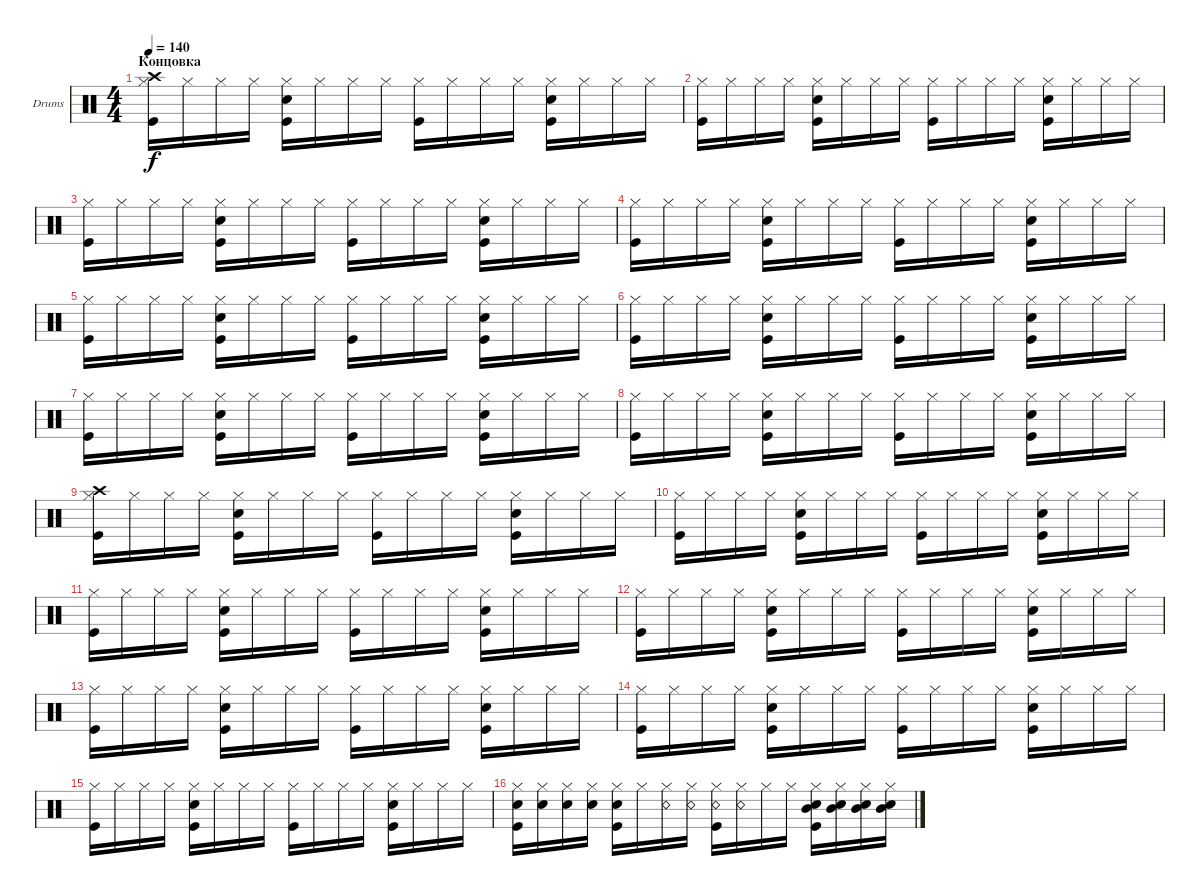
\defaultSystemsLayout 4
\bracketExtendMode groupsimilarinstruments
\firstSystemTrackNameOrientation horizontal
\otherSystemsTrackNameOrientation horizontal
\track ("Drumkit" "Drums") {instrument percussion}
\staff {score}
\articulation defaults
\ts (4 4)
\section ("" "Концовка")
\tempo 140
\clef neutral
\ks c
("Hi-Hat (closed)" "Kick (hit)" "Crash high (hit)").16{dy f} "Hi-Hat (closed)".16 "Hi-Hat (closed)".16 "Hi-Hat (closed)".16 ("Hi-Hat (closed)" "Kick (hit)" "Snare (hit) 2").16 "Hi-Hat (closed)".16 "Hi-Hat (closed)".16 "Hi-Hat (closed)".16 ("Hi-Hat (closed)" "Kick (hit)").16 "Hi-Hat (closed)".16 "Hi-Hat (closed)".16 "Hi-Hat (closed)".16 ("Hi-Hat (closed)" "Kick (hit)" "Snare (hit) 2").16 "Hi-Hat (closed)".16 "Hi-Hat (closed)".16 "Hi-Hat (closed)".16 |
("Hi-Hat (closed)" "Kick (hit)").16 "Hi-Hat (closed)".16 "Hi-Hat (closed)".16 "Hi-Hat (closed)".16 ("Hi-Hat (closed)" "Kick (hit)" "Snare (hit) 2").16 "Hi-Hat (closed)".16 "Hi-Hat (closed)".16 "Hi-Hat (closed)".16 ("Hi-Hat (closed)" "Kick (hit)").16 "Hi-Hat (closed)".16 "Hi-Hat (closed)".16 "Hi-Hat (closed)".16 ("Hi-Hat (closed)" "Kick (hit)" "Snare (hit) 2").16 "Hi-Hat (closed)".16 "Hi-Hat (closed)".16 "Hi-Hat (closed)".16 |
("Hi-Hat (closed)" "Kick (hit)").16 "Hi-Hat (closed)".16 "Hi-Hat (closed)".16 "Hi-Hat (closed)".16 ("Hi-Hat (closed)" "Kick (hit)" "Snare (hit) 2").16 "Hi-Hat (closed)".16 "Hi-Hat (closed)".16 "Hi-Hat (closed)".16 ("Hi-Hat (closed)" "Kick (hit)").16 "Hi-Hat (closed)".16 "Hi-Hat (closed)".16 "Hi-Hat (closed)".16 ("Hi-Hat (closed)" "Kick (hit)" "Snare (hit) 2").16 "Hi-Hat (closed)".16 "Hi-Hat (closed)".16 "Hi-Hat (closed)".16 |
("Hi-Hat (closed)" "Kick (hit)").16 "Hi-Hat (closed)".16 "Hi-Hat (closed)".16 "Hi-Hat (closed)".16 ("Hi-Hat (closed)" "Kick (hit)" "Snare (hit) 2").16 "Hi-Hat (closed)".16 "Hi-Hat (closed)".16 "Hi-Hat (closed)".16 ("Hi-Hat (closed)" "Kick (hit)").16 "Hi-Hat (closed)".16 "Hi-Hat (closed)".16 "Hi-Hat (closed)".16 ("Hi-Hat (closed)" "Kick (hit)" "Snare (hit) 2").16 "Hi-Hat (closed)".16 "Hi-Hat (closed)".16 "Hi-Hat (closed)".16 |
("Hi-Hat (closed)" "Kick (hit)").16 "Hi-Hat (closed)".16 "Hi-Hat (closed)".16 "Hi-Hat (closed)".16 ("Hi-Hat (closed)" "Kick (hit)" "Snare (hit) 2").16 "Hi-Hat (closed)".16 "Hi-Hat (closed)".16 "Hi-Hat (closed)".16 ("Hi-Hat (closed)" "Kick (hit)").16 "Hi-Hat (closed)".16 "Hi-Hat (closed)".16 "Hi-Hat (closed)".16 ("Hi-Hat (closed)" "Kick (hit)" "Snare (hit) 2").16 "Hi-Hat (closed)".16 "Hi-Hat (closed)".16 "Hi-Hat (closed)".16 |
("Hi-Hat (closed)" "Kick (hit)").16 "Hi-Hat (closed)".16 "Hi-Hat (closed)".16 "Hi-Hat (closed)".16 ("Hi-Hat (closed)" "Kick (hit)" "Snare (hit) 2").16 "Hi-Hat (closed)".16 "Hi-Hat (closed)".16 "Hi-Hat (closed)".16 ("Hi-Hat (closed)" "Kick (hit)").16 "Hi-Hat (closed)".16 "Hi-Hat (closed)".16 "Hi-Hat (closed)".16 ("Hi-Hat (closed)" "Kick (hit)" "Snare (hit) 2").16 "Hi-Hat (closed)".16 "Hi-Hat (closed)".16 "Hi-Hat (closed)".16 |
("Hi-Hat (closed)" "Kick (hit)").16 "Hi-Hat (closed)".16 "Hi-Hat (closed)".16 "Hi-Hat (closed)".16 ("Hi-Hat (closed)" "Kick (hit)" "Snare (hit) 2").16 "Hi-Hat (closed)".16 "Hi-Hat (closed)".16 "Hi-Hat (closed)".16 ("Hi-Hat (closed)" "Kick (hit)").16 "Hi-Hat (closed)".16 "Hi-Hat (closed)".16 "Hi-Hat (closed)".16 ("Hi-Hat (closed)" "Kick (hit)" "Snare (hit) 2").16 "Hi-Hat (closed)".16 "Hi-Hat (closed)".16 "Hi-Hat (closed)".16 |
("Hi-Hat (closed)" "Kick (hit)").16 "Hi-Hat (closed)".16 "Hi-Hat (closed)".16 "Hi-Hat (closed)".16 ("Hi-Hat (closed)" "Kick (hit)" "Snare (hit) 2").16 "Hi-Hat (closed)".16 "Hi-Hat (closed)".16 "Hi-Hat (closed)".16 ("Hi-Hat (closed)" "Kick (hit)").16 "Hi-Hat (closed)".16 "Hi-Hat (closed)".16 "Hi-Hat (closed)".16 ("Hi-Hat (closed)" "Kick (hit)" "Snare (hit) 2").16 "Hi-Hat (closed)".16 "Hi-Hat (closed)".16 "Hi-Hat (closed)".16 |
("Hi-Hat (closed)" "Kick (hit)" "Crash high (hit)").16 "Hi-Hat (closed)".16 "Hi-Hat (closed)".16 "Hi-Hat (closed)".16 ("Hi-Hat (closed)" "Kick (hit)" "Snare (hit) 2").16 "Hi-Hat (closed)".16 "Hi-Hat (closed)".16 "Hi-Hat (closed)".16 ("Hi-Hat (closed)" "Kick (hit)").16 "Hi-Hat (closed)".16 "Hi-Hat (closed)".16 "Hi-Hat (closed)".16 ("Hi-Hat (closed)" "Kick (hit)" "Snare (hit) 2").16 "Hi-Hat (closed)".16 "Hi-Hat (closed)".16 "Hi-Hat (closed)".16 |
("Hi-Hat (closed)" "Kick (hit)").16 "Hi-Hat (closed)".16 "Hi-Hat (closed)".16 "Hi-Hat (closed)".16 ("Hi-Hat (closed)" "Kick (hit)" "Snare (hit) 2").16 "Hi-Hat (closed)".16 "Hi-Hat (closed)".16 "Hi-Hat (closed)".16 ("Hi-Hat (closed)" "Kick (hit)").16 "Hi-Hat (closed)".16 "Hi-Hat (closed)".16 "Hi-Hat (closed)".16 ("Hi-Hat (closed)" "Kick (hit)" "Snare (hit) 2").16 "Hi-Hat (closed)".16 "Hi-Hat (closed)".16 "Hi-Hat (closed)".16 |
("Hi-Hat (closed)" "Kick (hit)").16 "Hi-Hat (closed)".16 "Hi-Hat (closed)".16 "Hi-Hat (closed)".16 ("Hi-Hat (closed)" "Kick (hit)" "Snare (hit) 2").16 "Hi-Hat (closed)".16 "Hi-Hat (closed)".16 "Hi-Hat (closed)".16 ("Hi-Hat (closed)" "Kick (hit)").16 "Hi-Hat (closed)".16 "Hi-Hat (closed)".16 "Hi-Hat (closed)".16 ("Hi-Hat (closed)" "Kick (hit)" "Snare (hit) 2").16 "Hi-Hat (closed)".16 "Hi-Hat (closed)".16 "Hi-Hat (closed)".16 |
("Hi-Hat (closed)" "Kick (hit)").16 "Hi-Hat (closed)".16 "Hi-Hat (closed)".16 "Hi-Hat (closed)".16 ("Hi-Hat (closed)" "Kick (hit)" "Snare (hit) 2").16 "Hi-Hat (closed)".16 "Hi-Hat (closed)".16 "Hi-Hat (closed)".16 ("Hi-Hat (closed)" "Kick (hit)").16 "Hi-Hat (closed)".16 "Hi-Hat (closed)".16 "Hi-Hat (closed)".16 ("Hi-Hat (closed)" "Kick (hit)" "Snare (hit) 2").16 "Hi-Hat (closed)".16 "Hi-Hat (closed)".16 "Hi-Hat (closed)".16 |
("Hi-Hat (closed)" "Kick (hit)").16 "Hi-Hat (closed)".16 "Hi-Hat (closed)".16 "Hi-Hat (closed)".16 ("Hi-Hat (closed)" "Kick (hit)" "Snare (hit) 2").16 "Hi-Hat (closed)".16 "Hi-Hat (closed)".16 "Hi-Hat (closed)".16 ("Hi-Hat (closed)" "Kick (hit)").16 "Hi-Hat (closed)".16 "Hi-Hat (closed)".16 "Hi-Hat (closed)".16 ("Hi-Hat (closed)" "Kick (hit)" "Snare (hit) 2").16 "Hi-Hat (closed)".16 "Hi-Hat (closed)".16 "Hi-Hat (closed)".16 |
("Hi-Hat (closed)" "Kick (hit)").16 "Hi-Hat (closed)".16 "Hi-Hat (closed)".16 "Hi-Hat (closed)".16 ("Hi-Hat (closed)" "Kick (hit)" "Snare (hit) 2").16 "Hi-Hat (closed)".16 "Hi-Hat (closed)".16 "Hi-Hat (closed)".16 ("Hi-Hat (closed)" "Kick (hit)").16 "Hi-Hat (closed)".16 "Hi-Hat (closed)".16 "Hi-Hat (closed)".16 ("Hi-Hat (closed)" "Kick (hit)" "Snare (hit) 2").16 "Hi-Hat (closed)".16 "Hi-Hat (closed)".16 "Hi-Hat (closed)".16 |
("Hi-Hat (closed)" "Kick (hit)").16 "Hi-Hat (closed)".16 "Hi-Hat (closed)".16 "Hi-Hat (closed)".16 ("Hi-Hat (closed)" "Kick (hit)" "Snare (hit) 2").16 "Hi-Hat (closed)".16 "Hi-Hat (closed)".16 "Hi-Hat (closed)".16 ("Hi-Hat (closed)" "Kick (hit)").16 "Hi-Hat (closed)".16 "Hi-Hat (closed)".16 "Hi-Hat (closed)".16 ("Hi-Hat (closed)" "Kick (hit)" "Snare (hit) 2").16 "Hi-Hat (closed)".16 "Hi-Hat (closed)".16 "Hi-Hat (closed)".16 |
("Hi-Hat (closed)" "Kick (hit)" "Snare (hit) 2").16 ("Hi-Hat (closed)" "Snare (hit) 2").16 ("Hi-Hat (closed)" "Snare (hit) 2").16 ("Hi-Hat (closed)" "Snare (hit) 2").16 ("Hi-Hat (closed)" "Kick (hit)" "Snare (hit) 2").16 "Hi-Hat (closed)".16 ("Hi-Hat (closed)" "Snare (rim shot)").16 ("Hi-Hat (closed)" "Snare (rim shot)").16 ("Hi-Hat (closed)" "Kick (hit)" "Snare (rim shot)").16 ("Hi-Hat (closed)" "Snare (rim shot)").16 "Hi-Hat (closed)".16 "Hi-Hat (closed)".16 ("Hi-Hat (closed)" "Kick (hit)" "Snare (hit) 2" "Mid Tom (hit)").16 ("Hi-Hat (closed)" "Snare (hit) 2" "Mid Tom (hit)").16 ("Hi-Hat (closed)" "Snare (hit) 2" "Mid Tom (hit)").16 ("Hi-Hat (closed)" "Snare (hit) 2" "Mid Tom (hit)").16
